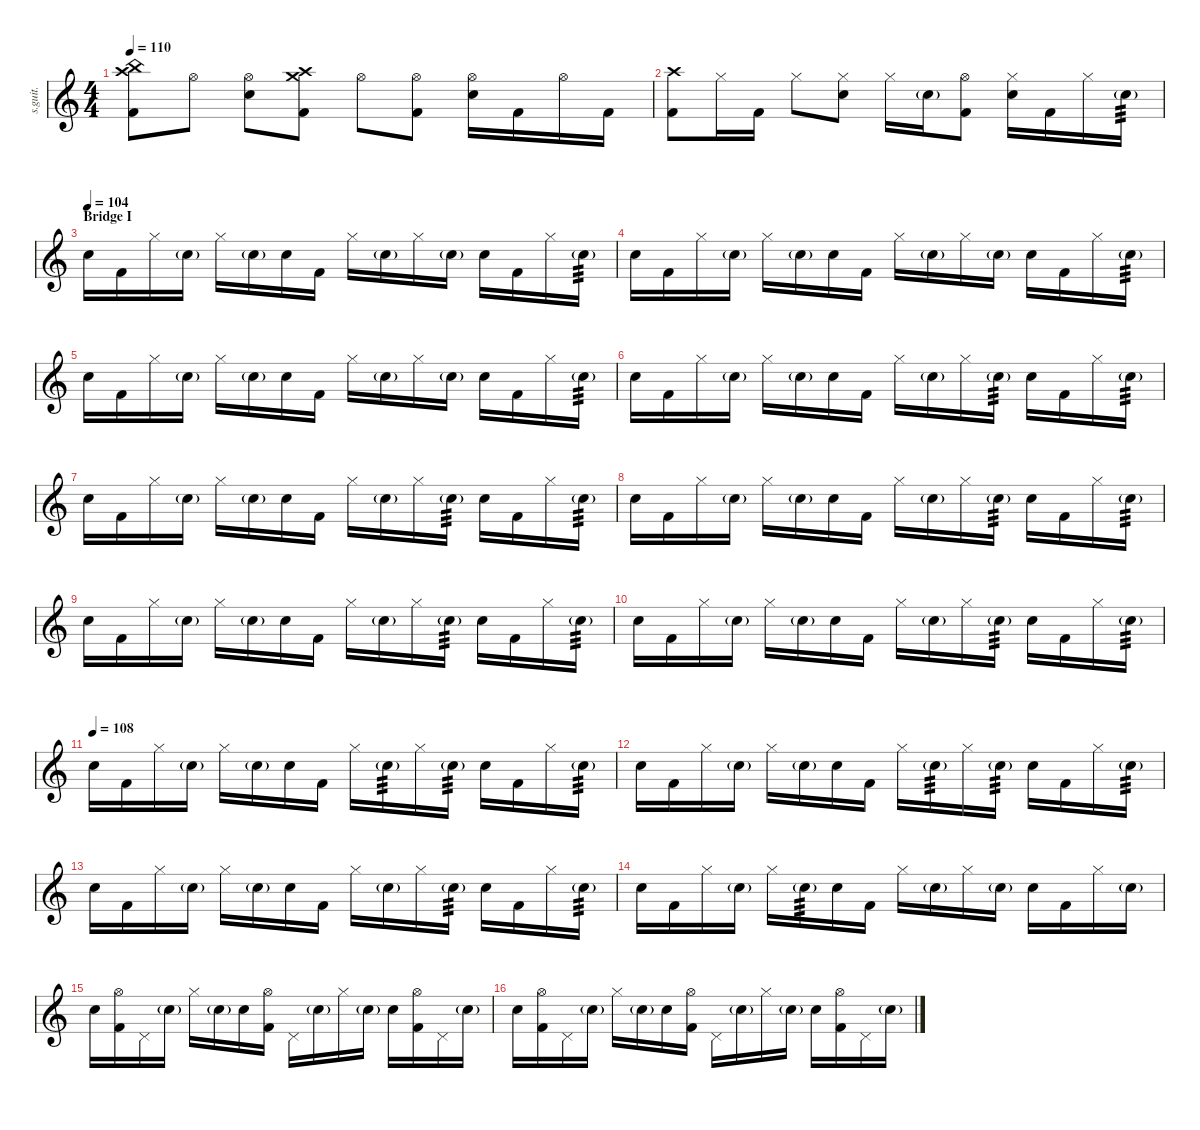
\defaultSystemsLayout 4
\hideDynamics
\bracketExtendMode nobrackets
\track ("John Otto" "s.guit.") {instrument percussion}
\staff {score}
\articulation defaults
\ts (4 4)
\tempo 110
\clef g2
\ks c
("Crash high (hit)" "Kick (hit) 2" "China (hit)").8{lyrics (0 "") lyrics (1 "") lyrics (2 "") lyrics (3 "") lyrics (4 "") dy ff} "Hi-Hat (open)".8{lyrics (0 "") lyrics (1 "") lyrics (2 "") lyrics (3 "") lyrics (4 "")} ("Hi-Hat (open)" "Snare (hit) 2").8{lyrics (0 "") lyrics (1 "") lyrics (2 "") lyrics (3 "") lyrics (4 "")} ("Crash high (hit)" "Kick (hit) 2" "Crash medium (hit)").8{lyrics (0 "") lyrics (1 "") lyrics (2 "") lyrics (3 "") lyrics (4 "")} "Hi-Hat (open)".8{lyrics (0 "") lyrics (1 "") lyrics (2 "") lyrics (3 "") lyrics (4 "")} ("Hi-Hat (open)" "Kick (hit) 2").8{lyrics (0 "") lyrics (1 "") lyrics (2 "") lyrics (3 "") lyrics (4 "")} ("Hi-Hat (open)" "Snare (hit) 2").16{lyrics (0 "") lyrics (1 "") lyrics (2 "") lyrics (3 "") lyrics (4 "")} "Kick (hit) 2".16{lyrics (0 "") lyrics (1 "") lyrics (2 "") lyrics (3 "") lyrics (4 "")} "Hi-Hat (open)".16{lyrics (0 "") lyrics (1 "") lyrics (2 "") lyrics (3 "") lyrics (4 "")} "Kick (hit) 2".16{lyrics (0 "") lyrics (1 "") lyrics (2 "") lyrics (3 "") lyrics (4 "")} |
("Kick (hit) 2" "Crash high (hit)").8{lyrics (0 "") lyrics (1 "") lyrics (2 "") lyrics (3 "") lyrics (4 "")} "Hi-Hat (closed)".16{lyrics (0 "") lyrics (1 "") lyrics (2 "") lyrics (3 "") lyrics (4 "")} "Kick (hit) 2".16{lyrics (0 "") lyrics (1 "") lyrics (2 "") lyrics (3 "") lyrics (4 "")} "Hi-Hat (closed)".8{lyrics (0 "") lyrics (1 "") lyrics (2 "") lyrics (3 "") lyrics (4 "")} ("Hi-Hat (closed)" "Snare (hit) 2").8{lyrics (0 "") lyrics (1 "") lyrics (2 "") lyrics (3 "") lyrics (4 "")} "Hi-Hat (closed)".16{lyrics (0 "") lyrics (1 "") lyrics (2 "") lyrics (3 "") lyrics (4 "")} "Snare (hit) 2"{g}.16{lyrics (0 "") lyrics (1 "") lyrics (2 "") lyrics (3 "") lyrics (4 "")} ("Hi-Hat (open)" "Kick (hit) 2").8{lyrics (0 "") lyrics (1 "") lyrics (2 "") lyrics (3 "") lyrics (4 "")} ("Hi-Hat (closed)" "Snare (hit) 2").16{lyrics (0 "") lyrics (1 "") lyrics (2 "") lyrics (3 "") lyrics (4 "")} "Kick (hit) 2".16{lyrics (0 "") lyrics (1 "") lyrics (2 "") lyrics (3 "") lyrics (4 "")} "Hi-Hat (closed)".16{lyrics (0 "") lyrics (1 "") lyrics (2 "") lyrics (3 "") lyrics (4 "")} "Snare (hit) 2"{g}.16{lyrics (0 "") lyrics (1 "") lyrics (2 "") lyrics (3 "") lyrics (4 "") tp 3} |
\section ("" "Bridge I")
\tempo (104)
"Snare (hit) 2".16{lyrics (0 "") lyrics (1 "") lyrics (2 "") lyrics (3 "") lyrics (4 "")} "Kick (hit) 2".16{lyrics (0 "") lyrics (1 "") lyrics (2 "") lyrics (3 "") lyrics (4 "")} "Hi-Hat (closed)".16{lyrics (0 "") lyrics (1 "") lyrics (2 "") lyrics (3 "") lyrics (4 "")} "Snare (hit) 2"{g}.16{lyrics (0 "") lyrics (1 "") lyrics (2 "") lyrics (3 "") lyrics (4 "")} "Hi-Hat (closed)".16{lyrics (0 "") lyrics (1 "") lyrics (2 "") lyrics (3 "") lyrics (4 "")} "Snare (hit) 2"{g}.16{lyrics (0 "") lyrics (1 "") lyrics (2 "") lyrics (3 "") lyrics (4 "")} "Snare (hit) 2".16{lyrics (0 "") lyrics (1 "") lyrics (2 "") lyrics (3 "") lyrics (4 "")} "Kick (hit) 2".16{lyrics (0 "") lyrics (1 "") lyrics (2 "") lyrics (3 "") lyrics (4 "")} "Hi-Hat (closed)".16{lyrics (0 "") lyrics (1 "") lyrics (2 "") lyrics (3 "") lyrics (4 "")} "Snare (hit) 2"{g}.16{lyrics (0 "") lyrics (1 "") lyrics (2 "") lyrics (3 "") lyrics (4 "")} "Hi-Hat (closed)".16{lyrics (0 "") lyrics (1 "") lyrics (2 "") lyrics (3 "") lyrics (4 "")} "Snare (hit) 2"{g}.16{lyrics (0 "") lyrics (1 "") lyrics (2 "") lyrics (3 "") lyrics (4 "")} "Snare (hit) 2".16{lyrics (0 "") lyrics (1 "") lyrics (2 "") lyrics (3 "") lyrics (4 "")} "Kick (hit) 2".16{lyrics (0 "") lyrics (1 "") lyrics (2 "") lyrics (3 "") lyrics (4 "")} "Hi-Hat (closed)".16{lyrics (0 "") lyrics (1 "") lyrics (2 "") lyrics (3 "") lyrics (4 "")} "Snare (hit) 2"{g}.16{lyrics (0 "") lyrics (1 "") lyrics (2 "") lyrics (3 "") lyrics (4 "") tp 3} |
"Snare (hit) 2".16{lyrics (0 "") lyrics (1 "") lyrics (2 "") lyrics (3 "") lyrics (4 "")} "Kick (hit) 2".16{lyrics (0 "") lyrics (1 "") lyrics (2 "") lyrics (3 "") lyrics (4 "")} "Hi-Hat (closed)".16{lyrics (0 "") lyrics (1 "") lyrics (2 "") lyrics (3 "") lyrics (4 "")} "Snare (hit) 2"{g}.16{lyrics (0 "") lyrics (1 "") lyrics (2 "") lyrics (3 "") lyrics (4 "")} "Hi-Hat (closed)".16{lyrics (0 "") lyrics (1 "") lyrics (2 "") lyrics (3 "") lyrics (4 "")} "Snare (hit) 2"{g}.16{lyrics (0 "") lyrics (1 "") lyrics (2 "") lyrics (3 "") lyrics (4 "")} "Snare (hit) 2".16{lyrics (0 "") lyrics (1 "") lyrics (2 "") lyrics (3 "") lyrics (4 "")} "Kick (hit) 2".16{lyrics (0 "") lyrics (1 "") lyrics (2 "") lyrics (3 "") lyrics (4 "")} "Hi-Hat (closed)".16{lyrics (0 "") lyrics (1 "") lyrics (2 "") lyrics (3 "") lyrics (4 "")} "Snare (hit) 2"{g}.16{lyrics (0 "") lyrics (1 "") lyrics (2 "") lyrics (3 "") lyrics (4 "")} "Hi-Hat (closed)".16{lyrics (0 "") lyrics (1 "") lyrics (2 "") lyrics (3 "") lyrics (4 "")} "Snare (hit) 2"{g}.16{lyrics (0 "") lyrics (1 "") lyrics (2 "") lyrics (3 "") lyrics (4 "")} "Snare (hit) 2".16{lyrics (0 "") lyrics (1 "") lyrics (2 "") lyrics (3 "") lyrics (4 "")} "Kick (hit) 2".16{lyrics (0 "") lyrics (1 "") lyrics (2 "") lyrics (3 "") lyrics (4 "")} "Hi-Hat (closed)".16{lyrics (0 "") lyrics (1 "") lyrics (2 "") lyrics (3 "") lyrics (4 "")} "Snare (hit) 2"{g}.16{lyrics (0 "") lyrics (1 "") lyrics (2 "") lyrics (3 "") lyrics (4 "") tp 3} |
"Snare (hit) 2".16{lyrics (0 "") lyrics (1 "") lyrics (2 "") lyrics (3 "") lyrics (4 "")} "Kick (hit) 2".16{lyrics (0 "") lyrics (1 "") lyrics (2 "") lyrics (3 "") lyrics (4 "")} "Hi-Hat (closed)".16{lyrics (0 "") lyrics (1 "") lyrics (2 "") lyrics (3 "") lyrics (4 "")} "Snare (hit) 2"{g}.16{lyrics (0 "") lyrics (1 "") lyrics (2 "") lyrics (3 "") lyrics (4 "")} "Hi-Hat (closed)".16{lyrics (0 "") lyrics (1 "") lyrics (2 "") lyrics (3 "") lyrics (4 "")} "Snare (hit) 2"{g}.16{lyrics (0 "") lyrics (1 "") lyrics (2 "") lyrics (3 "") lyrics (4 "")} "Snare (hit) 2".16{lyrics (0 "") lyrics (1 "") lyrics (2 "") lyrics (3 "") lyrics (4 "")} "Kick (hit) 2".16{lyrics (0 "") lyrics (1 "") lyrics (2 "") lyrics (3 "") lyrics (4 "")} "Hi-Hat (closed)".16{lyrics (0 "") lyrics (1 "") lyrics (2 "") lyrics (3 "") lyrics (4 "")} "Snare (hit) 2"{g}.16{lyrics (0 "") lyrics (1 "") lyrics (2 "") lyrics (3 "") lyrics (4 "")} "Hi-Hat (closed)".16{lyrics (0 "") lyrics (1 "") lyrics (2 "") lyrics (3 "") lyrics (4 "")} "Snare (hit) 2"{g}.16{lyrics (0 "") lyrics (1 "") lyrics (2 "") lyrics (3 "") lyrics (4 "")} "Snare (hit) 2".16{lyrics (0 "") lyrics (1 "") lyrics (2 "") lyrics (3 "") lyrics (4 "")} "Kick (hit) 2".16{lyrics (0 "") lyrics (1 "") lyrics (2 "") lyrics (3 "") lyrics (4 "")} "Hi-Hat (closed)".16{lyrics (0 "") lyrics (1 "") lyrics (2 "") lyrics (3 "") lyrics (4 "")} "Snare (hit) 2"{g}.16{lyrics (0 "") lyrics (1 "") lyrics (2 "") lyrics (3 "") lyrics (4 "") tp 3} |
"Snare (hit) 2".16{lyrics (0 "") lyrics (1 "") lyrics (2 "") lyrics (3 "") lyrics (4 "")} "Kick (hit) 2".16{lyrics (0 "") lyrics (1 "") lyrics (2 "") lyrics (3 "") lyrics (4 "")} "Hi-Hat (closed)".16{lyrics (0 "") lyrics (1 "") lyrics (2 "") lyrics (3 "") lyrics (4 "")} "Snare (hit) 2"{g}.16{lyrics (0 "") lyrics (1 "") lyrics (2 "") lyrics (3 "") lyrics (4 "")} "Hi-Hat (closed)".16{lyrics (0 "") lyrics (1 "") lyrics (2 "") lyrics (3 "") lyrics (4 "")} "Snare (hit) 2"{g}.16{lyrics (0 "") lyrics (1 "") lyrics (2 "") lyrics (3 "") lyrics (4 "")} "Snare (hit) 2".16{lyrics (0 "") lyrics (1 "") lyrics (2 "") lyrics (3 "") lyrics (4 "")} "Kick (hit) 2".16{lyrics (0 "") lyrics (1 "") lyrics (2 "") lyrics (3 "") lyrics (4 "")} "Hi-Hat (closed)".16{lyrics (0 "") lyrics (1 "") lyrics (2 "") lyrics (3 "") lyrics (4 "")} "Snare (hit) 2"{g}.16{lyrics (0 "") lyrics (1 "") lyrics (2 "") lyrics (3 "") lyrics (4 "")} "Hi-Hat (closed)".16{lyrics (0 "") lyrics (1 "") lyrics (2 "") lyrics (3 "") lyrics (4 "")} "Snare (hit) 2"{g}.16{lyrics (0 "") lyrics (1 "") lyrics (2 "") lyrics (3 "") lyrics (4 "") tp 3} "Snare (hit) 2".16{lyrics (0 "") lyrics (1 "") lyrics (2 "") lyrics (3 "") lyrics (4 "")} "Kick (hit) 2".16{lyrics (0 "") lyrics (1 "") lyrics (2 "") lyrics (3 "") lyrics (4 "")} "Hi-Hat (closed)".16{lyrics (0 "") lyrics (1 "") lyrics (2 "") lyrics (3 "") lyrics (4 "")} "Snare (hit) 2"{g}.16{lyrics (0 "") lyrics (1 "") lyrics (2 "") lyrics (3 "") lyrics (4 "") tp 3} |
"Snare (hit) 2".16{lyrics (0 "") lyrics (1 "") lyrics (2 "") lyrics (3 "") lyrics (4 "")} "Kick (hit) 2".16{lyrics (0 "") lyrics (1 "") lyrics (2 "") lyrics (3 "") lyrics (4 "")} "Hi-Hat (closed)".16{lyrics (0 "") lyrics (1 "") lyrics (2 "") lyrics (3 "") lyrics (4 "")} "Snare (hit) 2"{g}.16{lyrics (0 "") lyrics (1 "") lyrics (2 "") lyrics (3 "") lyrics (4 "")} "Hi-Hat (closed)".16{lyrics (0 "") lyrics (1 "") lyrics (2 "") lyrics (3 "") lyrics (4 "")} "Snare (hit) 2"{g}.16{lyrics (0 "") lyrics (1 "") lyrics (2 "") lyrics (3 "") lyrics (4 "")} "Snare (hit) 2".16{lyrics (0 "") lyrics (1 "") lyrics (2 "") lyrics (3 "") lyrics (4 "")} "Kick (hit) 2".16{lyrics (0 "") lyrics (1 "") lyrics (2 "") lyrics (3 "") lyrics (4 "")} "Hi-Hat (closed)".16{lyrics (0 "") lyrics (1 "") lyrics (2 "") lyrics (3 "") lyrics (4 "")} "Snare (hit) 2"{g}.16{lyrics (0 "") lyrics (1 "") lyrics (2 "") lyrics (3 "") lyrics (4 "")} "Hi-Hat (closed)".16{lyrics (0 "") lyrics (1 "") lyrics (2 "") lyrics (3 "") lyrics (4 "")} "Snare (hit) 2"{g}.16{lyrics (0 "") lyrics (1 "") lyrics (2 "") lyrics (3 "") lyrics (4 "") tp 3} "Snare (hit) 2".16{lyrics (0 "") lyrics (1 "") lyrics (2 "") lyrics (3 "") lyrics (4 "")} "Kick (hit) 2".16{lyrics (0 "") lyrics (1 "") lyrics (2 "") lyrics (3 "") lyrics (4 "")} "Hi-Hat (closed)".16{lyrics (0 "") lyrics (1 "") lyrics (2 "") lyrics (3 "") lyrics (4 "")} "Snare (hit) 2"{g}.16{lyrics (0 "") lyrics (1 "") lyrics (2 "") lyrics (3 "") lyrics (4 "") tp 3} |
"Snare (hit) 2".16{lyrics (0 "") lyrics (1 "") lyrics (2 "") lyrics (3 "") lyrics (4 "")} "Kick (hit) 2".16{lyrics (0 "") lyrics (1 "") lyrics (2 "") lyrics (3 "") lyrics (4 "")} "Hi-Hat (closed)".16{lyrics (0 "") lyrics (1 "") lyrics (2 "") lyrics (3 "") lyrics (4 "")} "Snare (hit) 2"{g}.16{lyrics (0 "") lyrics (1 "") lyrics (2 "") lyrics (3 "") lyrics (4 "")} "Hi-Hat (closed)".16{lyrics (0 "") lyrics (1 "") lyrics (2 "") lyrics (3 "") lyrics (4 "")} "Snare (hit) 2"{g}.16{lyrics (0 "") lyrics (1 "") lyrics (2 "") lyrics (3 "") lyrics (4 "")} "Snare (hit) 2".16{lyrics (0 "") lyrics (1 "") lyrics (2 "") lyrics (3 "") lyrics (4 "")} "Kick (hit) 2".16{lyrics (0 "") lyrics (1 "") lyrics (2 "") lyrics (3 "") lyrics (4 "")} "Hi-Hat (closed)".16{lyrics (0 "") lyrics (1 "") lyrics (2 "") lyrics (3 "") lyrics (4 "")} "Snare (hit) 2"{g}.16{lyrics (0 "") lyrics (1 "") lyrics (2 "") lyrics (3 "") lyrics (4 "")} "Hi-Hat (closed)".16{lyrics (0 "") lyrics (1 "") lyrics (2 "") lyrics (3 "") lyrics (4 "")} "Snare (hit) 2"{g}.16{lyrics (0 "") lyrics (1 "") lyrics (2 "") lyrics (3 "") lyrics (4 "") tp 3} "Snare (hit) 2".16{lyrics (0 "") lyrics (1 "") lyrics (2 "") lyrics (3 "") lyrics (4 "")} "Kick (hit) 2".16{lyrics (0 "") lyrics (1 "") lyrics (2 "") lyrics (3 "") lyrics (4 "")} "Hi-Hat (closed)".16{lyrics (0 "") lyrics (1 "") lyrics (2 "") lyrics (3 "") lyrics (4 "")} "Snare (hit) 2"{g}.16{lyrics (0 "") lyrics (1 "") lyrics (2 "") lyrics (3 "") lyrics (4 "") tp 3} |
"Snare (hit) 2".16{lyrics (0 "") lyrics (1 "") lyrics (2 "") lyrics (3 "") lyrics (4 "")} "Kick (hit) 2".16{lyrics (0 "") lyrics (1 "") lyrics (2 "") lyrics (3 "") lyrics (4 "")} "Hi-Hat (closed)".16{lyrics (0 "") lyrics (1 "") lyrics (2 "") lyrics (3 "") lyrics (4 "")} "Snare (hit) 2"{g}.16{lyrics (0 "") lyrics (1 "") lyrics (2 "") lyrics (3 "") lyrics (4 "")} "Hi-Hat (closed)".16{lyrics (0 "") lyrics (1 "") lyrics (2 "") lyrics (3 "") lyrics (4 "")} "Snare (hit) 2"{g}.16{lyrics (0 "") lyrics (1 "") lyrics (2 "") lyrics (3 "") lyrics (4 "")} "Snare (hit) 2".16{lyrics (0 "") lyrics (1 "") lyrics (2 "") lyrics (3 "") lyrics (4 "")} "Kick (hit) 2".16{lyrics (0 "") lyrics (1 "") lyrics (2 "") lyrics (3 "") lyrics (4 "")} "Hi-Hat (closed)".16{lyrics (0 "") lyrics (1 "") lyrics (2 "") lyrics (3 "") lyrics (4 "")} "Snare (hit) 2"{g}.16{lyrics (0 "") lyrics (1 "") lyrics (2 "") lyrics (3 "") lyrics (4 "")} "Hi-Hat (closed)".16{lyrics (0 "") lyrics (1 "") lyrics (2 "") lyrics (3 "") lyrics (4 "")} "Snare (hit) 2"{g}.16{lyrics (0 "") lyrics (1 "") lyrics (2 "") lyrics (3 "") lyrics (4 "") tp 3} "Snare (hit) 2".16{lyrics (0 "") lyrics (1 "") lyrics (2 "") lyrics (3 "") lyrics (4 "")} "Kick (hit) 2".16{lyrics (0 "") lyrics (1 "") lyrics (2 "") lyrics (3 "") lyrics (4 "")} "Hi-Hat (closed)".16{lyrics (0 "") lyrics (1 "") lyrics (2 "") lyrics (3 "") lyrics (4 "")} "Snare (hit) 2"{g}.16{lyrics (0 "") lyrics (1 "") lyrics (2 "") lyrics (3 "") lyrics (4 "") tp 3} |
"Snare (hit) 2".16{lyrics (0 "") lyrics (1 "") lyrics (2 "") lyrics (3 "") lyrics (4 "")} "Kick (hit) 2".16{lyrics (0 "") lyrics (1 "") lyrics (2 "") lyrics (3 "") lyrics (4 "")} "Hi-Hat (closed)".16{lyrics (0 "") lyrics (1 "") lyrics (2 "") lyrics (3 "") lyrics (4 "")} "Snare (hit) 2"{g}.16{lyrics (0 "") lyrics (1 "") lyrics (2 "") lyrics (3 "") lyrics (4 "")} "Hi-Hat (closed)".16{lyrics (0 "") lyrics (1 "") lyrics (2 "") lyrics (3 "") lyrics (4 "")} "Snare (hit) 2"{g}.16{lyrics (0 "") lyrics (1 "") lyrics (2 "") lyrics (3 "") lyrics (4 "")} "Snare (hit) 2".16{lyrics (0 "") lyrics (1 "") lyrics (2 "") lyrics (3 "") lyrics (4 "")} "Kick (hit) 2".16{lyrics (0 "") lyrics (1 "") lyrics (2 "") lyrics (3 "") lyrics (4 "")} "Hi-Hat (closed)".16{lyrics (0 "") lyrics (1 "") lyrics (2 "") lyrics (3 "") lyrics (4 "")} "Snare (hit) 2"{g}.16{lyrics (0 "") lyrics (1 "") lyrics (2 "") lyrics (3 "") lyrics (4 "")} "Hi-Hat (closed)".16{lyrics (0 "") lyrics (1 "") lyrics (2 "") lyrics (3 "") lyrics (4 "")} "Snare (hit) 2"{g}.16{lyrics (0 "") lyrics (1 "") lyrics (2 "") lyrics (3 "") lyrics (4 "") tp 3} "Snare (hit) 2".16{lyrics (0 "") lyrics (1 "") lyrics (2 "") lyrics (3 "") lyrics (4 "")} "Kick (hit) 2".16{lyrics (0 "") lyrics (1 "") lyrics (2 "") lyrics (3 "") lyrics (4 "")} "Hi-Hat (closed)".16{lyrics (0 "") lyrics (1 "") lyrics (2 "") lyrics (3 "") lyrics (4 "")} "Snare (hit) 2"{g}.16{lyrics (0 "") lyrics (1 "") lyrics (2 "") lyrics (3 "") lyrics (4 "") tp 3} |
\tempo (108)
"Snare (hit) 2".16{lyrics (0 "") lyrics (1 "") lyrics (2 "") lyrics (3 "") lyrics (4 "")} "Kick (hit) 2".16{lyrics (0 "") lyrics (1 "") lyrics (2 "") lyrics (3 "") lyrics (4 "")} "Hi-Hat (closed)".16{lyrics (0 "") lyrics (1 "") lyrics (2 "") lyrics (3 "") lyrics (4 "")} "Snare (hit) 2"{g}.16{lyrics (0 "") lyrics (1 "") lyrics (2 "") lyrics (3 "") lyrics (4 "")} "Hi-Hat (closed)".16{lyrics (0 "") lyrics (1 "") lyrics (2 "") lyrics (3 "") lyrics (4 "")} "Snare (hit) 2"{g}.16{lyrics (0 "") lyrics (1 "") lyrics (2 "") lyrics (3 "") lyrics (4 "")} "Snare (hit) 2".16{lyrics (0 "") lyrics (1 "") lyrics (2 "") lyrics (3 "") lyrics (4 "")} "Kick (hit) 2".16{lyrics (0 "") lyrics (1 "") lyrics (2 "") lyrics (3 "") lyrics (4 "")} "Hi-Hat (closed)".16{lyrics (0 "") lyrics (1 "") lyrics (2 "") lyrics (3 "") lyrics (4 "")} "Snare (hit) 2"{g}.16{lyrics (0 "") lyrics (1 "") lyrics (2 "") lyrics (3 "") lyrics (4 "") tp 3} "Hi-Hat (closed)".16{lyrics (0 "") lyrics (1 "") lyrics (2 "") lyrics (3 "") lyrics (4 "")} "Snare (hit) 2"{g}.16{lyrics (0 "") lyrics (1 "") lyrics (2 "") lyrics (3 "") lyrics (4 "") tp 3} "Snare (hit) 2".16{lyrics (0 "") lyrics (1 "") lyrics (2 "") lyrics (3 "") lyrics (4 "")} "Kick (hit) 2".16{lyrics (0 "") lyrics (1 "") lyrics (2 "") lyrics (3 "") lyrics (4 "")} "Hi-Hat (closed)".16{lyrics (0 "") lyrics (1 "") lyrics (2 "") lyrics (3 "") lyrics (4 "")} "Snare (hit) 2"{g}.16{lyrics (0 "") lyrics (1 "") lyrics (2 "") lyrics (3 "") lyrics (4 "") tp 3} |
"Snare (hit) 2".16{lyrics (0 "") lyrics (1 "") lyrics (2 "") lyrics (3 "") lyrics (4 "")} "Kick (hit) 2".16{lyrics (0 "") lyrics (1 "") lyrics (2 "") lyrics (3 "") lyrics (4 "")} "Hi-Hat (closed)".16{lyrics (0 "") lyrics (1 "") lyrics (2 "") lyrics (3 "") lyrics (4 "")} "Snare (hit) 2"{g}.16{lyrics (0 "") lyrics (1 "") lyrics (2 "") lyrics (3 "") lyrics (4 "")} "Hi-Hat (closed)".16{lyrics (0 "") lyrics (1 "") lyrics (2 "") lyrics (3 "") lyrics (4 "")} "Snare (hit) 2"{g}.16{lyrics (0 "") lyrics (1 "") lyrics (2 "") lyrics (3 "") lyrics (4 "")} "Snare (hit) 2".16{lyrics (0 "") lyrics (1 "") lyrics (2 "") lyrics (3 "") lyrics (4 "")} "Kick (hit) 2".16{lyrics (0 "") lyrics (1 "") lyrics (2 "") lyrics (3 "") lyrics (4 "")} "Hi-Hat (closed)".16{lyrics (0 "") lyrics (1 "") lyrics (2 "") lyrics (3 "") lyrics (4 "")} "Snare (hit) 2"{g}.16{lyrics (0 "") lyrics (1 "") lyrics (2 "") lyrics (3 "") lyrics (4 "") tp 3} "Hi-Hat (closed)".16{lyrics (0 "") lyrics (1 "") lyrics (2 "") lyrics (3 "") lyrics (4 "")} "Snare (hit) 2"{g}.16{lyrics (0 "") lyrics (1 "") lyrics (2 "") lyrics (3 "") lyrics (4 "") tp 3} "Snare (hit) 2".16{lyrics (0 "") lyrics (1 "") lyrics (2 "") lyrics (3 "") lyrics (4 "")} "Kick (hit) 2".16{lyrics (0 "") lyrics (1 "") lyrics (2 "") lyrics (3 "") lyrics (4 "")} "Hi-Hat (closed)".16{lyrics (0 "") lyrics (1 "") lyrics (2 "") lyrics (3 "") lyrics (4 "")} "Snare (hit) 2"{g}.16{lyrics (0 "") lyrics (1 "") lyrics (2 "") lyrics (3 "") lyrics (4 "") tp 3} |
"Snare (hit) 2".16{lyrics (0 "") lyrics (1 "") lyrics (2 "") lyrics (3 "") lyrics (4 "")} "Kick (hit) 2".16{lyrics (0 "") lyrics (1 "") lyrics (2 "") lyrics (3 "") lyrics (4 "")} "Hi-Hat (closed)".16{lyrics (0 "") lyrics (1 "") lyrics (2 "") lyrics (3 "") lyrics (4 "")} "Snare (hit) 2"{g}.16{lyrics (0 "") lyrics (1 "") lyrics (2 "") lyrics (3 "") lyrics (4 "")} "Hi-Hat (closed)".16{lyrics (0 "") lyrics (1 "") lyrics (2 "") lyrics (3 "") lyrics (4 "")} "Snare (hit) 2"{g}.16{lyrics (0 "") lyrics (1 "") lyrics (2 "") lyrics (3 "") lyrics (4 "")} "Snare (hit) 2".16{lyrics (0 "") lyrics (1 "") lyrics (2 "") lyrics (3 "") lyrics (4 "")} "Kick (hit) 2".16{lyrics (0 "") lyrics (1 "") lyrics (2 "") lyrics (3 "") lyrics (4 "")} "Hi-Hat (closed)".16{lyrics (0 "") lyrics (1 "") lyrics (2 "") lyrics (3 "") lyrics (4 "")} "Snare (hit) 2"{g}.16{lyrics (0 "") lyrics (1 "") lyrics (2 "") lyrics (3 "") lyrics (4 "")} "Hi-Hat (closed)".16{lyrics (0 "") lyrics (1 "") lyrics (2 "") lyrics (3 "") lyrics (4 "")} "Snare (hit) 2"{g}.16{lyrics (0 "") lyrics (1 "") lyrics (2 "") lyrics (3 "") lyrics (4 "") tp 3} "Snare (hit) 2".16{lyrics (0 "") lyrics (1 "") lyrics (2 "") lyrics (3 "") lyrics (4 "")} "Kick (hit) 2".16{lyrics (0 "") lyrics (1 "") lyrics (2 "") lyrics (3 "") lyrics (4 "")} "Hi-Hat (closed)".16{lyrics (0 "") lyrics (1 "") lyrics (2 "") lyrics (3 "") lyrics (4 "")} "Snare (hit) 2"{g}.16{lyrics (0 "") lyrics (1 "") lyrics (2 "") lyrics (3 "") lyrics (4 "") tp 3} |
"Snare (hit) 2".16{lyrics (0 "") lyrics (1 "") lyrics (2 "") lyrics (3 "") lyrics (4 "")} "Kick (hit) 2".16{lyrics (0 "") lyrics (1 "") lyrics (2 "") lyrics (3 "") lyrics (4 "")} "Hi-Hat (closed)".16{lyrics (0 "") lyrics (1 "") lyrics (2 "") lyrics (3 "") lyrics (4 "")} "Snare (hit) 2"{g}.16{lyrics (0 "") lyrics (1 "") lyrics (2 "") lyrics (3 "") lyrics (4 "")} "Hi-Hat (closed)".16{lyrics (0 "") lyrics (1 "") lyrics (2 "") lyrics (3 "") lyrics (4 "")} "Snare (hit) 2"{g}.16{lyrics (0 "") lyrics (1 "") lyrics (2 "") lyrics (3 "") lyrics (4 "") tp 3} "Snare (hit) 2".16{lyrics (0 "") lyrics (1 "") lyrics (2 "") lyrics (3 "") lyrics (4 "")} "Kick (hit) 2".16{lyrics (0 "") lyrics (1 "") lyrics (2 "") lyrics (3 "") lyrics (4 "")} "Hi-Hat (closed)".16{lyrics (0 "") lyrics (1 "") lyrics (2 "") lyrics (3 "") lyrics (4 "")} "Snare (hit) 2"{g}.16{lyrics (0 "") lyrics (1 "") lyrics (2 "") lyrics (3 "") lyrics (4 "")} "Hi-Hat (closed)".16{lyrics (0 "") lyrics (1 "") lyrics (2 "") lyrics (3 "") lyrics (4 "")} "Snare (hit) 2"{g}.16{lyrics (0 "") lyrics (1 "") lyrics (2 "") lyrics (3 "") lyrics (4 "")} "Snare (hit) 2".16{lyrics (0 "") lyrics (1 "") lyrics (2 "") lyrics (3 "") lyrics (4 "")} "Kick (hit) 2".16{lyrics (0 "") lyrics (1 "") lyrics (2 "") lyrics (3 "") lyrics (4 "")} "Hi-Hat (closed)".16{lyrics (0 "") lyrics (1 "") lyrics (2 "") lyrics (3 "") lyrics (4 "")} "Snare (hit) 2"{g}.16{lyrics (0 "") lyrics (1 "") lyrics (2 "") lyrics (3 "") lyrics (4 "")} |
"Snare (hit) 2".16{lyrics (0 "") lyrics (1 "") lyrics (2 "") lyrics (3 "") lyrics (4 "")} ("Kick (hit) 2" "Hi-Hat (open)").16{lyrics (0 "") lyrics (1 "") lyrics (2 "") lyrics (3 "") lyrics (4 "")} "Pedal Hi-Hat (hit)".16{lyrics (0 "") lyrics (1 "") lyrics (2 "") lyrics (3 "") lyrics (4 "")} "Snare (hit) 2"{g}.16{lyrics (0 "") lyrics (1 "") lyrics (2 "") lyrics (3 "") lyrics (4 "")} "Hi-Hat (closed)".16{lyrics (0 "") lyrics (1 "") lyrics (2 "") lyrics (3 "") lyrics (4 "")} "Snare (hit) 2"{g}.16{lyrics (0 "") lyrics (1 "") lyrics (2 "") lyrics (3 "") lyrics (4 "")} "Snare (hit) 2".16{lyrics (0 "") lyrics (1 "") lyrics (2 "") lyrics (3 "") lyrics (4 "")} ("Kick (hit) 2" "Hi-Hat (open)").16{lyrics (0 "") lyrics (1 "") lyrics (2 "") lyrics (3 "") lyrics (4 "")} "Pedal Hi-Hat (hit)".16{lyrics (0 "") lyrics (1 "") lyrics (2 "") lyrics (3 "") lyrics (4 "")} "Snare (hit) 2"{g}.16{lyrics (0 "") lyrics (1 "") lyrics (2 "") lyrics (3 "") lyrics (4 "")} "Hi-Hat (closed)".16{lyrics (0 "") lyrics (1 "") lyrics (2 "") lyrics (3 "") lyrics (4 "")} "Snare (hit) 2"{g}.16{lyrics (0 "") lyrics (1 "") lyrics (2 "") lyrics (3 "") lyrics (4 "")} "Snare (hit) 2".16{lyrics (0 "") lyrics (1 "") lyrics (2 "") lyrics (3 "") lyrics (4 "")} ("Kick (hit) 2" "Hi-Hat (open)").16{lyrics (0 "") lyrics (1 "") lyrics (2 "") lyrics (3 "") lyrics (4 "")} "Pedal Hi-Hat (hit)".16{lyrics (0 "") lyrics (1 "") lyrics (2 "") lyrics (3 "") lyrics (4 "")} "Snare (hit) 2"{g}.16{lyrics (0 "") lyrics (1 "") lyrics (2 "") lyrics (3 "") lyrics (4 "")} |
"Snare (hit) 2".16{lyrics (0 "") lyrics (1 "") lyrics (2 "") lyrics (3 "") lyrics (4 "")} ("Kick (hit) 2" "Hi-Hat (open)").16{lyrics (0 "") lyrics (1 "") lyrics (2 "") lyrics (3 "") lyrics (4 "")} "Pedal Hi-Hat (hit)".16{lyrics (0 "") lyrics (1 "") lyrics (2 "") lyrics (3 "") lyrics (4 "")} "Snare (hit) 2"{g}.16{lyrics (0 "") lyrics (1 "") lyrics (2 "") lyrics (3 "") lyrics (4 "")} "Hi-Hat (closed)".16{lyrics (0 "") lyrics (1 "") lyrics (2 "") lyrics (3 "") lyrics (4 "")} "Snare (hit) 2"{g}.16{lyrics (0 "") lyrics (1 "") lyrics (2 "") lyrics (3 "") lyrics (4 "")} "Snare (hit) 2".16{lyrics (0 "") lyrics (1 "") lyrics (2 "") lyrics (3 "") lyrics (4 "")} ("Kick (hit) 2" "Hi-Hat (open)").16{lyrics (0 "") lyrics (1 "") lyrics (2 "") lyrics (3 "") lyrics (4 "")} "Pedal Hi-Hat (hit)".16{lyrics (0 "") lyrics (1 "") lyrics (2 "") lyrics (3 "") lyrics (4 "")} "Snare (hit) 2"{g}.16{lyrics (0 "") lyrics (1 "") lyrics (2 "") lyrics (3 "") lyrics (4 "")} "Hi-Hat (closed)".16{lyrics (0 "") lyrics (1 "") lyrics (2 "") lyrics (3 "") lyrics (4 "")} "Snare (hit) 2"{g}.16{lyrics (0 "") lyrics (1 "") lyrics (2 "") lyrics (3 "") lyrics (4 "")} "Snare (hit) 2".16{lyrics (0 "") lyrics (1 "") lyrics (2 "") lyrics (3 "") lyrics (4 "")} ("Kick (hit) 2" "Hi-Hat (open)").16{lyrics (0 "") lyrics (1 "") lyrics (2 "") lyrics (3 "") lyrics (4 "")} "Pedal Hi-Hat (hit)".16{lyrics (0 "") lyrics (1 "") lyrics (2 "") lyrics (3 "") lyrics (4 "")} "Snare (hit) 2"{g}.16{lyrics (0 "") lyrics (1 "") lyrics (2 "") lyrics (3 "") lyrics (4 "")}
